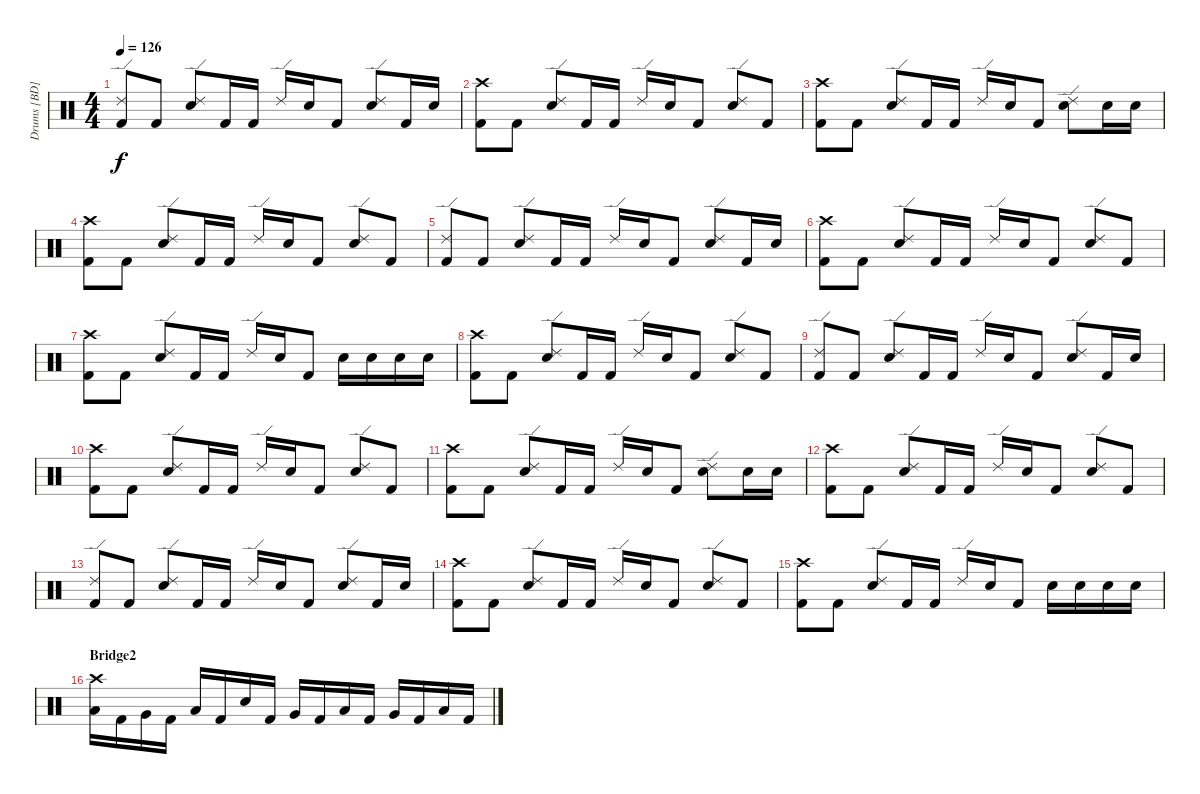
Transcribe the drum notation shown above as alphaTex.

\track ("Drums [BD]" "Drums [BD]") {instrument percussion}
\staff {score}
\articulation defaults
\ts (4 4)
\tempo 126
\clef neutral
\ks c
("Kick (hit) 2" "Ride (edge) 2").8{dy f} "Kick (hit) 2".8 ("Electric Snare (hit)" "Ride (edge) 2").8 "Kick (hit) 2".16 "Kick (hit) 2".16 "Ride (edge) 2".16 "Electric Snare (hit)".16 "Kick (hit) 2".8 ("Electric Snare (hit)" "Ride (edge) 2").8 "Kick (hit) 2".16 "Electric Snare (hit)".16 |
("Kick (hit) 2" "Crash high (hit)").8 "Kick (hit) 2".8 ("Electric Snare (hit)" "Ride (edge) 2").8 "Kick (hit) 2".16 "Kick (hit) 2".16 "Ride (edge) 2".16 "Electric Snare (hit)".16 "Kick (hit) 2".8 ("Electric Snare (hit)" "Ride (edge) 2").8 "Kick (hit) 2".8 |
("Kick (hit) 2" "Crash high (hit)").8 "Kick (hit) 2".8 ("Electric Snare (hit)" "Ride (edge) 2").8 "Kick (hit) 2".16 "Kick (hit) 2".16 "Ride (edge) 2".16 "Electric Snare (hit)".16 "Kick (hit) 2".8 ("Electric Snare (hit)" "Ride (edge) 2").8 "Electric Snare (hit)".16 "Electric Snare (hit)".16 |
("Kick (hit) 2" "Crash high (hit)").8 "Kick (hit) 2".8 ("Electric Snare (hit)" "Ride (edge) 2").8 "Kick (hit) 2".16 "Kick (hit) 2".16 "Ride (edge) 2".16 "Electric Snare (hit)".16 "Kick (hit) 2".8 ("Electric Snare (hit)" "Ride (edge) 2").8 "Kick (hit) 2".8 |
("Kick (hit) 2" "Ride (edge) 2").8 "Kick (hit) 2".8 ("Electric Snare (hit)" "Ride (edge) 2").8 "Kick (hit) 2".16 "Kick (hit) 2".16 "Ride (edge) 2".16 "Electric Snare (hit)".16 "Kick (hit) 2".8 ("Electric Snare (hit)" "Ride (edge) 2").8 "Kick (hit) 2".16 "Electric Snare (hit)".16 |
("Kick (hit) 2" "Crash high (hit)").8 "Kick (hit) 2".8 ("Electric Snare (hit)" "Ride (edge) 2").8 "Kick (hit) 2".16 "Kick (hit) 2".16 "Ride (edge) 2".16 "Electric Snare (hit)".16 "Kick (hit) 2".8 ("Electric Snare (hit)" "Ride (edge) 2").8 "Kick (hit) 2".8 |
("Kick (hit) 2" "Crash high (hit)").8 "Kick (hit) 2".8 ("Electric Snare (hit)" "Ride (edge) 2").8 "Kick (hit) 2".16 "Kick (hit) 2".16 "Ride (edge) 2".16 "Electric Snare (hit)".16 "Kick (hit) 2".8 "Electric Snare (hit)".16 "Electric Snare (hit)".16 "Electric Snare (hit)".16 "Electric Snare (hit)".16 |
("Kick (hit) 2" "Crash high (hit)").8 "Kick (hit) 2".8 ("Electric Snare (hit)" "Ride (edge) 2").8 "Kick (hit) 2".16 "Kick (hit) 2".16 "Ride (edge) 2".16 "Electric Snare (hit)".16 "Kick (hit) 2".8 ("Electric Snare (hit)" "Ride (edge) 2").8 "Kick (hit) 2".8 |
("Kick (hit) 2" "Ride (edge) 2").8 "Kick (hit) 2".8 ("Electric Snare (hit)" "Ride (edge) 2").8 "Kick (hit) 2".16 "Kick (hit) 2".16 "Ride (edge) 2".16 "Electric Snare (hit)".16 "Kick (hit) 2".8 ("Electric Snare (hit)" "Ride (edge) 2").8 "Kick (hit) 2".16 "Electric Snare (hit)".16 |
("Kick (hit) 2" "Crash high (hit)").8 "Kick (hit) 2".8 ("Electric Snare (hit)" "Ride (edge) 2").8 "Kick (hit) 2".16 "Kick (hit) 2".16 "Ride (edge) 2".16 "Electric Snare (hit)".16 "Kick (hit) 2".8 ("Electric Snare (hit)" "Ride (edge) 2").8 "Kick (hit) 2".8 |
("Kick (hit) 2" "Crash high (hit)").8 "Kick (hit) 2".8 ("Electric Snare (hit)" "Ride (edge) 2").8 "Kick (hit) 2".16 "Kick (hit) 2".16 "Ride (edge) 2".16 "Electric Snare (hit)".16 "Kick (hit) 2".8 ("Electric Snare (hit)" "Ride (edge) 2").8 "Electric Snare (hit)".16 "Electric Snare (hit)".16 |
("Kick (hit) 2" "Crash high (hit)").8 "Kick (hit) 2".8 ("Electric Snare (hit)" "Ride (edge) 2").8 "Kick (hit) 2".16 "Kick (hit) 2".16 "Ride (edge) 2".16 "Electric Snare (hit)".16 "Kick (hit) 2".8 ("Electric Snare (hit)" "Ride (edge) 2").8 "Kick (hit) 2".8 |
("Kick (hit) 2" "Ride (edge) 2").8 "Kick (hit) 2".8 ("Electric Snare (hit)" "Ride (edge) 2").8 "Kick (hit) 2".16 "Kick (hit) 2".16 "Ride (edge) 2".16 "Electric Snare (hit)".16 "Kick (hit) 2".8 ("Electric Snare (hit)" "Ride (edge) 2").8 "Kick (hit) 2".16 "Electric Snare (hit)".16 |
("Kick (hit) 2" "Crash high (hit)").8 "Kick (hit) 2".8 ("Electric Snare (hit)" "Ride (edge) 2").8 "Kick (hit) 2".16 "Kick (hit) 2".16 "Ride (edge) 2".16 "Electric Snare (hit)".16 "Kick (hit) 2".8 ("Electric Snare (hit)" "Ride (edge) 2").8 "Kick (hit) 2".8 |
("Kick (hit) 2" "Crash high (hit)").8 "Kick (hit) 2".8 ("Electric Snare (hit)" "Ride (edge) 2").8 "Kick (hit) 2".16 "Kick (hit) 2".16 "Ride (edge) 2".16 "Electric Snare (hit)".16 "Kick (hit) 2".8 "Electric Snare (hit)".16 "Electric Snare (hit)".16 "Electric Snare (hit)".16 "Electric Snare (hit)".16 |
\section ("" "Bridge2")
("Low Tom (hit)" "Crash high (hit)").16 "Kick (hit) 2".16 "Very Low Tom (hit)".16 "Kick (hit) 2".16 "Low Floor Tom (hit)".16 "Kick (hit) 2".16 "Electric Snare (hit)".16 "Kick (hit) 2".16 "Very Low Tom (hit)".16 "Kick (hit) 2".16 "Low Floor Tom (hit)".16 "Kick (hit) 2".16 "Very Low Tom (hit)".16 "Kick (hit) 2".16 "Low Floor Tom (hit)".16 "Kick (hit) 2".16
